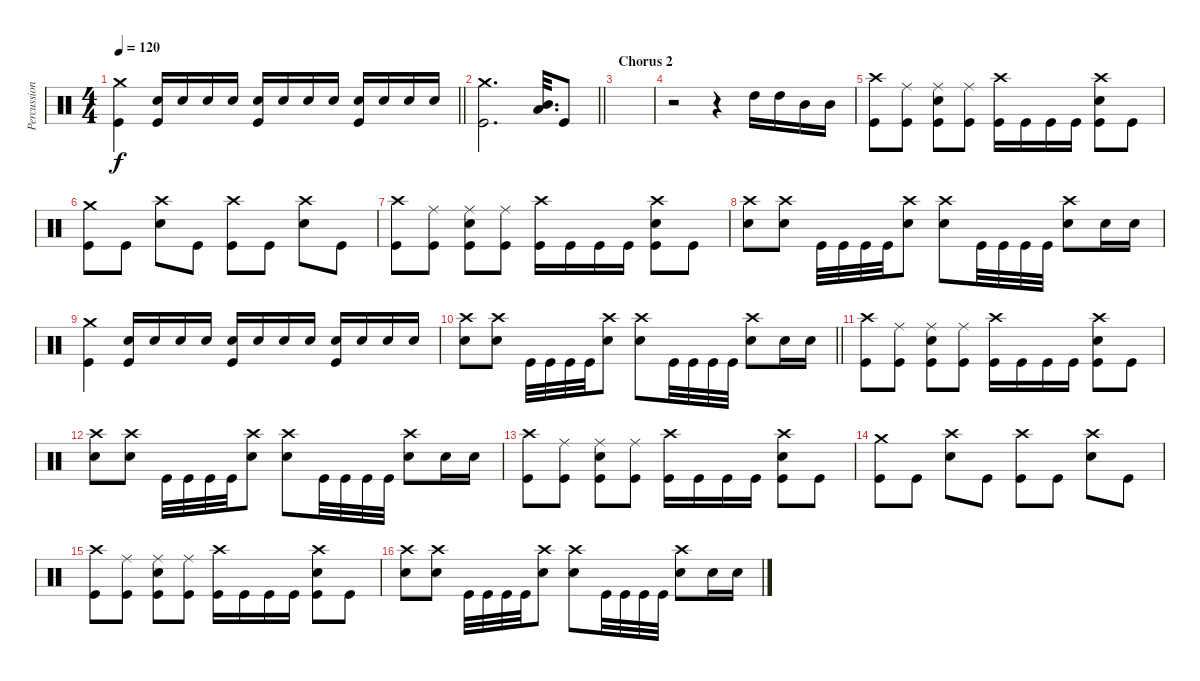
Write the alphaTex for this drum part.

\track ("Percussion" "Percussion") {instrument percussion}
\staff {score}
\articulation defaults
\ts (4 4)
\tempo 120
\clef neutral
\barLineRight lightlight
\ks c
("Crash medium (hit)" "Kick (hit)").4{dy f} ("Kick (hit)" "Snare (hit) 2").16{volume 6} "Snare (hit) 2".16{volume 13} "Snare (hit) 2".16 "Snare (hit) 2".16 ("Kick (hit)" "Snare (hit) 2").16 "Snare (hit) 2".16 "Snare (hit) 2".16 "Snare (hit) 2".16 ("Kick (hit)" "Snare (hit) 2").16 "Snare (hit) 2".16 "Snare (hit) 2".16 "Snare (hit) 2".16 |
\barLineRight lightlight
("Crash medium (hit)" "Kick (hit)").2{d volume 12} ("Low Tom (hit)" "Mid Tom (hit)").32{d} "Kick (hit)".8 |
\section ("" "Chorus 2")
|
r.2{volume 12} r.4 "High Tom (hit)".16 "High Tom (hit)".16 "Mid Tom (hit)".16 "Mid Tom (hit)".16 |
("Kick (hit)" "Crash high (hit)").8 ("Kick (hit)" "Ride (middle)").8 ("Kick (hit)" "Ride (middle)" "Snare (hit) 2").8 ("Kick (hit)" "Ride (middle)").8 ("Kick (hit)" "Crash high (hit)").16 "Kick (hit)".16 "Kick (hit)".16 "Kick (hit)".16 ("Crash high (hit)" "Snare (hit) 2" "Kick (hit)").8 "Kick (hit)".8 |
("Kick (hit)" "Crash medium (hit)").8 "Kick (hit)".8 ("Crash high (hit)" "Snare (hit) 2").8 "Kick (hit)".8 ("Kick (hit)" "Crash high (hit)").8 "Kick (hit)".8 ("Snare (hit) 2" "Crash high (hit)").8 "Kick (hit)".8 |
("Kick (hit)" "Crash high (hit)").8 ("Kick (hit)" "Ride (middle)").8 ("Kick (hit)" "Ride (middle)" "Snare (hit) 2").8 ("Kick (hit)" "Ride (middle)").8 ("Kick (hit)" "Crash high (hit)").16 "Kick (hit)".16 "Kick (hit)".16 "Kick (hit)".16 ("Crash high (hit)" "Snare (hit) 2" "Kick (hit)").8 "Kick (hit)".8 |
("Crash high (hit)" "Snare (hit) 2").8 ("Snare (hit) 2" "Crash high (hit)").8 "Kick (hit)".32 "Kick (hit)".32 "Kick (hit)".32 "Kick (hit)".32 ("Snare (hit) 2" "Crash high (hit)").8 ("Snare (hit) 2" "Crash high (hit)").8 "Kick (hit)".32 "Kick (hit)".32 "Kick (hit)".32 "Kick (hit)".32 ("Snare (hit) 2" "Crash high (hit)").8 "Snare (hit) 2".16 "Snare (hit) 2".16 |
("Crash medium (hit)" "Kick (hit)").4 ("Kick (hit)" "Snare (hit) 2").16{volume 6} "Snare (hit) 2".16{volume 13} "Snare (hit) 2".16 "Snare (hit) 2".16 ("Kick (hit)" "Snare (hit) 2").16 "Snare (hit) 2".16 "Snare (hit) 2".16 "Snare (hit) 2".16 ("Kick (hit)" "Snare (hit) 2").16 "Snare (hit) 2".16 "Snare (hit) 2".16 "Snare (hit) 2".16 |
\barLineRight lightlight
("Crash high (hit)" "Snare (hit) 2").8 ("Snare (hit) 2" "Crash high (hit)").8 "Kick (hit)".32 "Kick (hit)".32 "Kick (hit)".32 "Kick (hit)".32 ("Snare (hit) 2" "Crash high (hit)").8 ("Snare (hit) 2" "Crash high (hit)").8 "Kick (hit)".32 "Kick (hit)".32 "Kick (hit)".32 "Kick (hit)".32 ("Snare (hit) 2" "Crash high (hit)").8 "Snare (hit) 2".16 "Snare (hit) 2".16 |
("Kick (hit)" "Crash high (hit)").8 ("Kick (hit)" "Ride (middle)").8 ("Kick (hit)" "Ride (middle)" "Snare (hit) 2").8 ("Kick (hit)" "Ride (middle)").8 ("Kick (hit)" "Crash high (hit)").16 "Kick (hit)".16 "Kick (hit)".16 "Kick (hit)".16 ("Crash high (hit)" "Snare (hit) 2" "Kick (hit)").8 "Kick (hit)".8 |
("Crash high (hit)" "Snare (hit) 2").8 ("Snare (hit) 2" "Crash high (hit)").8 "Kick (hit)".32 "Kick (hit)".32 "Kick (hit)".32 "Kick (hit)".32 ("Snare (hit) 2" "Crash high (hit)").8 ("Snare (hit) 2" "Crash high (hit)").8 "Kick (hit)".32 "Kick (hit)".32 "Kick (hit)".32 "Kick (hit)".32 ("Snare (hit) 2" "Crash high (hit)").8 "Snare (hit) 2".16 "Snare (hit) 2".16 |
("Kick (hit)" "Crash high (hit)").8 ("Kick (hit)" "Ride (middle)").8 ("Kick (hit)" "Ride (middle)" "Snare (hit) 2").8 ("Kick (hit)" "Ride (middle)").8 ("Kick (hit)" "Crash high (hit)").16 "Kick (hit)".16 "Kick (hit)".16 "Kick (hit)".16 ("Crash high (hit)" "Snare (hit) 2" "Kick (hit)").8 "Kick (hit)".8 |
("Kick (hit)" "Crash medium (hit)").8 "Kick (hit)".8 ("Crash high (hit)" "Snare (hit) 2").8 "Kick (hit)".8 ("Kick (hit)" "Crash high (hit)").8 "Kick (hit)".8 ("Snare (hit) 2" "Crash high (hit)").8 "Kick (hit)".8 |
("Kick (hit)" "Crash high (hit)").8 ("Kick (hit)" "Ride (middle)").8 ("Kick (hit)" "Ride (middle)" "Snare (hit) 2").8 ("Kick (hit)" "Ride (middle)").8 ("Kick (hit)" "Crash high (hit)").16 "Kick (hit)".16 "Kick (hit)".16 "Kick (hit)".16 ("Crash high (hit)" "Snare (hit) 2" "Kick (hit)").8 "Kick (hit)".8 |
("Crash high (hit)" "Snare (hit) 2").8 ("Snare (hit) 2" "Crash high (hit)").8 "Kick (hit)".32 "Kick (hit)".32 "Kick (hit)".32 "Kick (hit)".32 ("Snare (hit) 2" "Crash high (hit)").8 ("Snare (hit) 2" "Crash high (hit)").8 "Kick (hit)".32 "Kick (hit)".32 "Kick (hit)".32 "Kick (hit)".32 ("Snare (hit) 2" "Crash high (hit)").8 "Snare (hit) 2".16 "Snare (hit) 2".16
